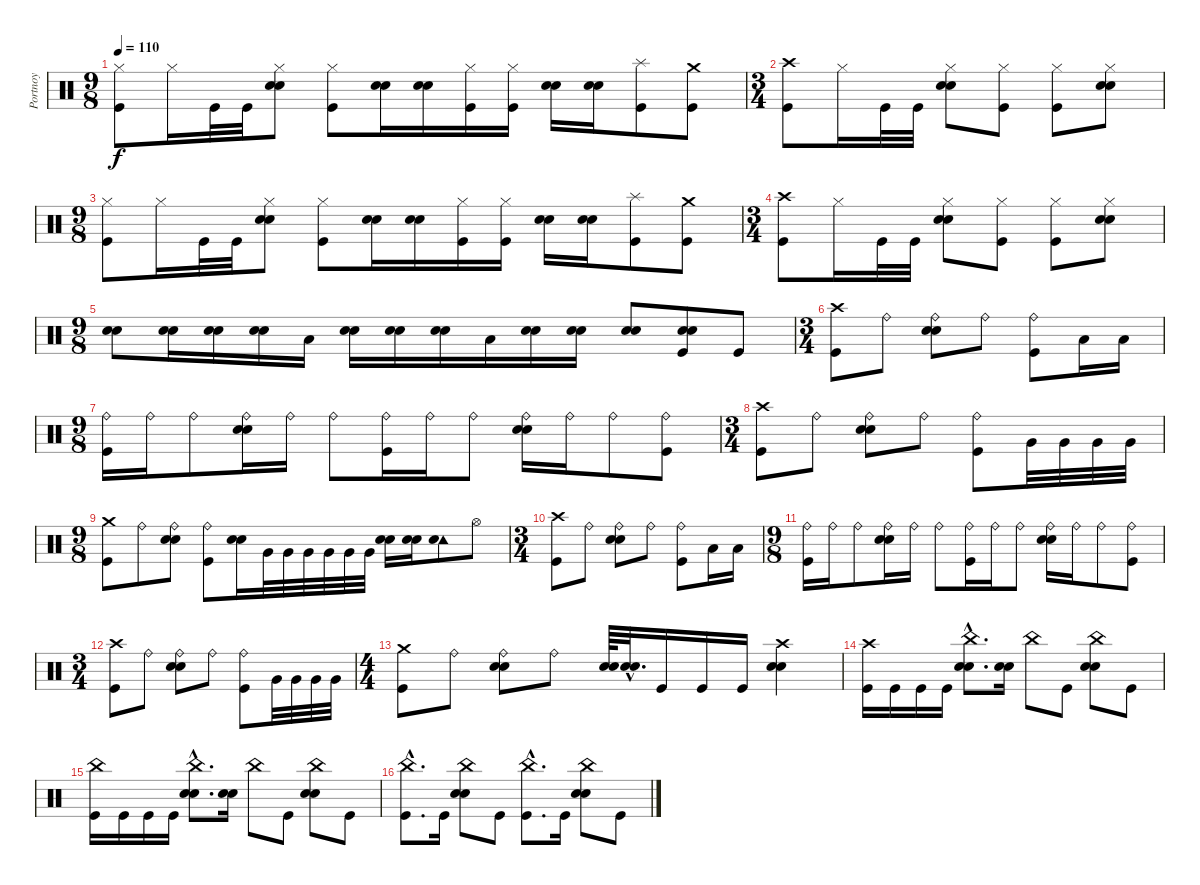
\track ("Portnoy" "Portnoy") {instrument percussion}
\staff {score}
\articulation defaults
\ts (9 8)
\tempo 110
\clef neutral
\ks c
("Hi-Hat (closed)" "Kick (hit)").8{dy f} "Hi-Hat (closed)".16 "Kick (hit)".32 "Kick (hit)".32 ("Hi-Hat (closed)" "Snare (hit) 2" "Electric Snare (hit)").8 ("Hi-Hat (closed)" "Kick (hit)").8 ("Snare (hit) 2" "Electric Snare (hit)").16 ("Snare (hit) 2" "Electric Snare (hit)").16 ("Hi-Hat (closed)" "Kick (hit)").16 ("Hi-Hat (closed)" "Kick (hit)").16 ("Snare (hit) 2" "Electric Snare (hit)").16 ("Snare (hit) 2" "Electric Snare (hit)").16 ("Splash (hit)" "Kick (hit)").8 ("Crash medium (hit)" "Kick (hit)").8 |
\ts (3 4)
("Crash high (hit)" "Kick (hit)").8 "Hi-Hat (closed)".16 "Kick (hit)".32 "Kick (hit)".32 ("Hi-Hat (closed)" "Snare (hit) 2" "Electric Snare (hit)").8 ("Hi-Hat (closed)" "Kick (hit)").8 ("Hi-Hat (closed)" "Kick (hit)").8 ("Hi-Hat (closed)" "Snare (hit) 2" "Electric Snare (hit)").8 |
\ts (9 8)
("Hi-Hat (closed)" "Kick (hit)").8 "Hi-Hat (closed)".16 "Kick (hit)".32 "Kick (hit)".32 ("Hi-Hat (closed)" "Snare (hit) 2" "Electric Snare (hit)").8 ("Hi-Hat (closed)" "Kick (hit)").8 ("Snare (hit) 2" "Electric Snare (hit)").16 ("Snare (hit) 2" "Electric Snare (hit)").16 ("Hi-Hat (closed)" "Kick (hit)").16 ("Hi-Hat (closed)" "Kick (hit)").16 ("Snare (hit) 2" "Electric Snare (hit)").16 ("Snare (hit) 2" "Electric Snare (hit)").16 ("Splash (hit)" "Kick (hit)").8 ("Crash medium (hit)" "Kick (hit)").8 |
\ts (3 4)
("Crash high (hit)" "Kick (hit)").8 "Hi-Hat (closed)".16 "Kick (hit)".32 "Kick (hit)".32 ("Hi-Hat (closed)" "Snare (hit) 2" "Electric Snare (hit)").8 ("Hi-Hat (closed)" "Kick (hit)").8 ("Hi-Hat (closed)" "Kick (hit)").8 ("Hi-Hat (closed)" "Snare (hit) 2" "Electric Snare (hit)").8 |
\ts (9 8)
("Snare (hit) 2" "Electric Snare (hit)").8 ("Snare (hit) 2" "Electric Snare (hit)").16 ("Snare (hit) 2" "Electric Snare (hit)").16 ("Snare (hit) 2" "Electric Snare (hit)").16 "Low Tom (hit)".16 ("Snare (hit) 2" "Electric Snare (hit)").16 ("Snare (hit) 2" "Electric Snare (hit)").16 ("Snare (hit) 2" "Electric Snare (hit)").16 "Low Tom (hit)".16 ("Snare (hit) 2" "Electric Snare (hit)").16 ("Snare (hit) 2" "Electric Snare (hit)").16 ("Snare (hit) 2" "Electric Snare (hit)").8 ("Snare (hit) 2" "Electric Snare (hit)" "Kick (hit)").8 "Kick (hit)".8 |
\ts (3 4)
("Crash high (hit)" "Kick (hit)").8 "Ride (bell)".8 ("Ride (bell)" "Snare (hit) 2" "Electric Snare (hit)").8 "Ride (bell)".8 ("Ride (bell)" "Kick (hit)").8 "Low Tom (hit)".16 "Low Tom (hit)".16 |
\ts (9 8)
("Ride (bell)" "Kick (hit)").16 "Ride (bell)".16 "Ride (bell)".8 ("Ride (bell)" "Snare (hit) 2" "Electric Snare (hit)").16 "Ride (bell)".16 "Ride (bell)".8 ("Ride (bell)" "Kick (hit)").16 "Ride (bell)".16 "Ride (bell)".8 ("Ride (bell)" "Snare (hit) 2" "Electric Snare (hit)").16 "Ride (bell)".16 "Ride (bell)".8 ("Ride (bell)" "Kick (hit)").8 |
\ts (3 4)
("Crash high (hit)" "Kick (hit)").8 "Ride (bell)".8 ("Ride (bell)" "Snare (hit) 2" "Electric Snare (hit)").8 "Ride (bell)".8 ("Ride (bell)" "Kick (hit)").8 "Very Low Tom (hit)".32 "Very Low Tom (hit)".32 "Very Low Tom (hit)".32 "Very Low Tom (hit)".32 |
\ts (9 8)
("Crash medium (hit)" "Kick (hit)").8 "Ride (bell)".8 ("Ride (bell)" "Snare (hit) 2" "Electric Snare (hit)").8 ("Ride (bell)" "Kick (hit)").8 ("Snare (hit) 2" "Electric Snare (hit)").16 "Very Low Tom (hit)".32 "Very Low Tom (hit)".32 "Very Low Tom (hit)".32 "Very Low Tom (hit)".32 "Very Low Tom (hit)".32 "Very Low Tom (hit)".32 ("Snare (hit) 2" "Electric Snare (hit)").16 ("Snare (hit) 2" "Electric Snare (hit)").16 ("Tambourine (hit)" "Metronome (bell)").8 "Hi-Hat (open)".8 |
\ts (3 4)
("Crash high (hit)" "Kick (hit)").8 "Ride (bell)".8 ("Ride (bell)" "Snare (hit) 2" "Electric Snare (hit)").8 "Ride (bell)".8 ("Ride (bell)" "Kick (hit)").8 "Low Tom (hit)".16 "Low Tom (hit)".16 |
\ts (9 8)
("Ride (bell)" "Kick (hit)").16 "Ride (bell)".16 "Ride (bell)".8 ("Ride (bell)" "Snare (hit) 2" "Electric Snare (hit)").16 "Ride (bell)".16 "Ride (bell)".8 ("Ride (bell)" "Kick (hit)").16 "Ride (bell)".16 "Ride (bell)".8 ("Ride (bell)" "Snare (hit) 2" "Electric Snare (hit)").16 "Ride (bell)".16 "Ride (bell)".8 ("Ride (bell)" "Kick (hit)").8 |
\ts (3 4)
("Crash high (hit)" "Kick (hit)").8 "Ride (bell)".8 ("Ride (bell)" "Snare (hit) 2" "Electric Snare (hit)").8 "Ride (bell)".8 ("Ride (bell)" "Kick (hit)").8 "Very Low Tom (hit)".32 "Very Low Tom (hit)".32 "Very Low Tom (hit)".32 "Very Low Tom (hit)".32 |
\ts (4 4)
("Crash medium (hit)" "Kick (hit)").8 "Ride (bell)".8 ("Ride (bell)" "Snare (hit) 2" "Electric Snare (hit)").8 "Ride (bell)".8 ("Snare (hit) 2" "Electric Snare (hit)").64 ("Snare (hit) 2"{hac} "Electric Snare (hit)"{hac}).32{d} "Kick (hit)".16 "Kick (hit)".16 "Kick (hit)".16 ("Crash high (hit)" "Snare (hit) 2" "Electric Snare (hit)").4 |
("Crash high (hit)" "Kick (hit)").16 "Kick (hit)".16 "Kick (hit)".16 "Kick (hit)".16 ("China (hit)"{hac} "Snare (hit) 2"{hac} "Electric Snare (hit)"{hac}).8{d} ("Snare (hit) 2" "Electric Snare (hit)").16 "China (hit)".8 "Kick (hit)".8 ("China (hit)" "Snare (hit) 2" "Electric Snare (hit)").8 "Kick (hit)".8 |
("China (hit)" "Kick (hit)").16 "Kick (hit)".16 "Kick (hit)".16 "Kick (hit)".16 ("China (hit)"{hac} "Snare (hit) 2"{hac} "Electric Snare (hit)"{hac}).8{d} ("Snare (hit) 2" "Electric Snare (hit)").16 "China (hit)".8 "Kick (hit)".8 ("China (hit)" "Snare (hit) 2" "Electric Snare (hit)").8 "Kick (hit)".8 |
("China (hit)"{hac} "Kick (hit)"{hac}).8{d} "Kick (hit)".16 ("China (hit)" "Snare (hit) 2" "Electric Snare (hit)").8 "Kick (hit)".8 ("China (hit)"{hac} "Kick (hit)"{hac}).8{d} "Kick (hit)".16 ("China (hit)" "Snare (hit) 2" "Electric Snare (hit)").8 "Kick (hit)".8
